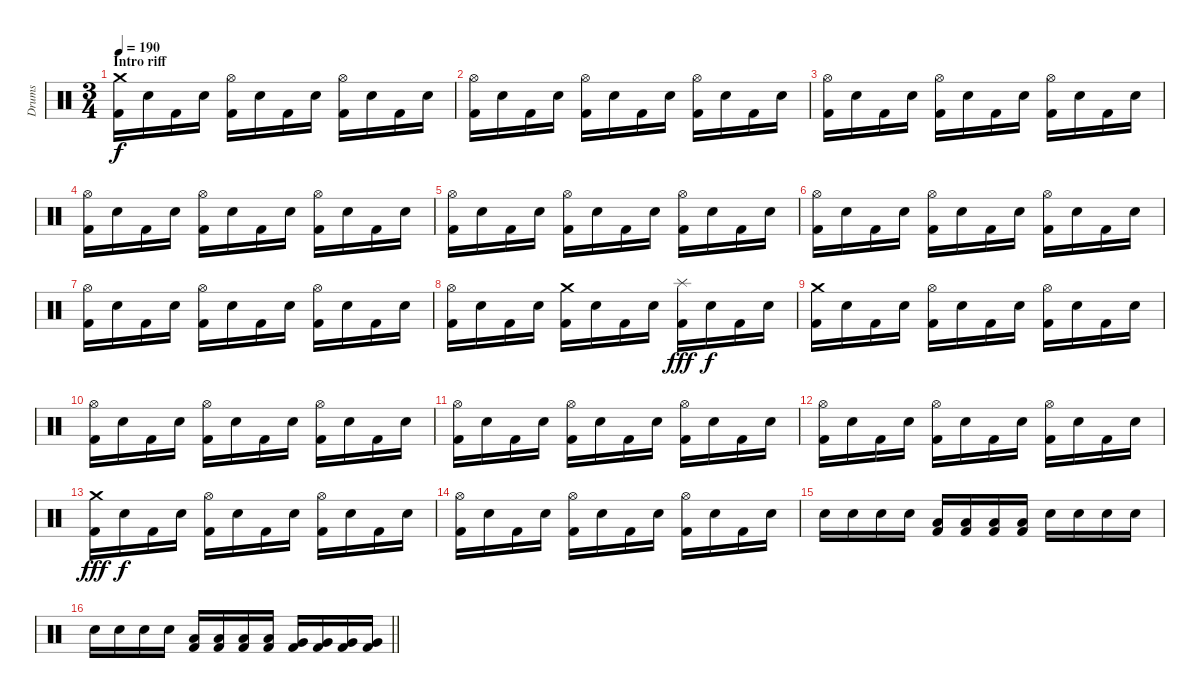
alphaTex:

\track ("Drums" "Drums") {instrument percussion}
\staff {score}
\articulation defaults
\ts (3 4)
\section ("" "Intro riff")
\tempo 190
\clef neutral
\ks c
("Crash medium (hit)" "Kick (hit) 2").16{dy f} "Electric Snare (hit)".16 "Kick (hit) 2".16 "Electric Snare (hit)".16 ("Hi-Hat (open)" "Kick (hit) 2").16 "Electric Snare (hit)".16 "Kick (hit) 2".16 "Electric Snare (hit)".16 ("Hi-Hat (open)" "Kick (hit) 2").16 "Electric Snare (hit)".16 "Kick (hit) 2".16 "Electric Snare (hit)".16 |
("Hi-Hat (open)" "Kick (hit) 2").16 "Electric Snare (hit)".16 "Kick (hit) 2".16 "Electric Snare (hit)".16 ("Hi-Hat (open)" "Kick (hit) 2").16 "Electric Snare (hit)".16 "Kick (hit) 2".16 "Electric Snare (hit)".16 ("Hi-Hat (open)" "Kick (hit) 2").16 "Electric Snare (hit)".16 "Kick (hit) 2".16 "Electric Snare (hit)".16 |
("Hi-Hat (open)" "Kick (hit) 2").16 "Electric Snare (hit)".16 "Kick (hit) 2".16 "Electric Snare (hit)".16 ("Hi-Hat (open)" "Kick (hit) 2").16 "Electric Snare (hit)".16 "Kick (hit) 2".16 "Electric Snare (hit)".16 ("Hi-Hat (open)" "Kick (hit) 2").16 "Electric Snare (hit)".16 "Kick (hit) 2".16 "Electric Snare (hit)".16 |
("Hi-Hat (open)" "Kick (hit) 2").16 "Electric Snare (hit)".16 "Kick (hit) 2".16 "Electric Snare (hit)".16 ("Hi-Hat (open)" "Kick (hit) 2").16 "Electric Snare (hit)".16 "Kick (hit) 2".16 "Electric Snare (hit)".16 ("Hi-Hat (open)" "Kick (hit) 2").16 "Electric Snare (hit)".16 "Kick (hit) 2".16 "Electric Snare (hit)".16 |
("Hi-Hat (open)" "Kick (hit) 2").16 "Electric Snare (hit)".16 "Kick (hit) 2".16 "Electric Snare (hit)".16 ("Hi-Hat (open)" "Kick (hit) 2").16 "Electric Snare (hit)".16 "Kick (hit) 2".16 "Electric Snare (hit)".16 ("Hi-Hat (open)" "Kick (hit) 2").16 "Electric Snare (hit)".16 "Kick (hit) 2".16 "Electric Snare (hit)".16 |
("Hi-Hat (open)" "Kick (hit) 2").16 "Electric Snare (hit)".16 "Kick (hit) 2".16 "Electric Snare (hit)".16 ("Hi-Hat (open)" "Kick (hit) 2").16 "Electric Snare (hit)".16 "Kick (hit) 2".16 "Electric Snare (hit)".16 ("Hi-Hat (open)" "Kick (hit) 2").16 "Electric Snare (hit)".16 "Kick (hit) 2".16 "Electric Snare (hit)".16 |
("Hi-Hat (open)" "Kick (hit) 2").16 "Electric Snare (hit)".16 "Kick (hit) 2".16 "Electric Snare (hit)".16 ("Hi-Hat (open)" "Kick (hit) 2").16 "Electric Snare (hit)".16 "Kick (hit) 2".16 "Electric Snare (hit)".16 ("Hi-Hat (open)" "Kick (hit) 2").16 "Electric Snare (hit)".16 "Kick (hit) 2".16 "Electric Snare (hit)".16 |
("Hi-Hat (open)" "Kick (hit) 2").16 "Electric Snare (hit)".16 "Kick (hit) 2".16 "Electric Snare (hit)".16 ("Crash medium (hit)" "Kick (hit) 2").16 "Electric Snare (hit)".16 "Kick (hit) 2".16 "Electric Snare (hit)".16 ("Splash (hit)" "Kick (hit) 2").16{dy fff} "Electric Snare (hit)".16{dy f} "Kick (hit) 2".16 "Electric Snare (hit)".16 |
("Crash medium (hit)" "Kick (hit) 2").16 "Electric Snare (hit)".16 "Kick (hit) 2".16 "Electric Snare (hit)".16 ("Hi-Hat (open)" "Kick (hit) 2").16 "Electric Snare (hit)".16 "Kick (hit) 2".16 "Electric Snare (hit)".16 ("Hi-Hat (open)" "Kick (hit) 2").16 "Electric Snare (hit)".16 "Kick (hit) 2".16 "Electric Snare (hit)".16 |
("Hi-Hat (open)" "Kick (hit) 2").16 "Electric Snare (hit)".16 "Kick (hit) 2".16 "Electric Snare (hit)".16 ("Hi-Hat (open)" "Kick (hit) 2").16 "Electric Snare (hit)".16 "Kick (hit) 2".16 "Electric Snare (hit)".16 ("Hi-Hat (open)" "Kick (hit) 2").16 "Electric Snare (hit)".16 "Kick (hit) 2".16 "Electric Snare (hit)".16 |
("Hi-Hat (open)" "Kick (hit) 2").16 "Electric Snare (hit)".16 "Kick (hit) 2".16 "Electric Snare (hit)".16 ("Hi-Hat (open)" "Kick (hit) 2").16 "Electric Snare (hit)".16 "Kick (hit) 2".16 "Electric Snare (hit)".16 ("Hi-Hat (open)" "Kick (hit) 2").16 "Electric Snare (hit)".16 "Kick (hit) 2".16 "Electric Snare (hit)".16 |
("Hi-Hat (open)" "Kick (hit) 2").16 "Electric Snare (hit)".16 "Kick (hit) 2".16 "Electric Snare (hit)".16 ("Hi-Hat (open)" "Kick (hit) 2").16 "Electric Snare (hit)".16 "Kick (hit) 2".16 "Electric Snare (hit)".16 ("Hi-Hat (open)" "Kick (hit) 2").16 "Electric Snare (hit)".16 "Kick (hit) 2".16 "Electric Snare (hit)".16 |
("Crash medium (hit)" "Kick (hit) 2").16{dy fff} "Electric Snare (hit)".16{dy f} "Kick (hit) 2".16 "Electric Snare (hit)".16 ("Hi-Hat (open)" "Kick (hit) 2").16 "Electric Snare (hit)".16 "Kick (hit) 2".16 "Electric Snare (hit)".16 ("Hi-Hat (open)" "Kick (hit) 2").16 "Electric Snare (hit)".16 "Kick (hit) 2".16 "Electric Snare (hit)".16 |
("Hi-Hat (open)" "Kick (hit) 2").16 "Electric Snare (hit)".16 "Kick (hit) 2".16 "Electric Snare (hit)".16 ("Hi-Hat (open)" "Kick (hit) 2").16 "Electric Snare (hit)".16 "Kick (hit) 2".16 "Electric Snare (hit)".16 ("Hi-Hat (open)" "Kick (hit) 2").16 "Electric Snare (hit)".16 "Kick (hit) 2".16 "Electric Snare (hit)".16 |
"Electric Snare (hit)".16 "Electric Snare (hit)".16 "Electric Snare (hit)".16 "Electric Snare (hit)".16 ("Low Tom (hit)" "Kick (hit) 2").16 ("Low Tom (hit)" "Kick (hit) 2").16 ("Low Tom (hit)" "Kick (hit) 2").16 ("Low Tom (hit)" "Kick (hit) 2").16 "Electric Snare (hit)".16 "Electric Snare (hit)".16 "Electric Snare (hit)".16 "Electric Snare (hit)".16 |
\barLineRight lightlight "Electric Snare (hit)".16 "Electric Snare (hit)".16 "Electric Snare (hit)".16 "Electric Snare (hit)".16
("Low Tom (hit)" "Kick (hit) 2").16 ("Low Tom (hit)" "Kick (hit) 2").16 ("Low Tom (hit)" "Kick (hit) 2").16 ("Low Tom (hit)" "Kick (hit) 2").16 ("Very Low Tom (hit)" "Kick (hit) 2").16 ("Very Low Tom (hit)" "Kick (hit) 2").16 ("Very Low Tom (hit)" "Kick (hit) 2").16 ("Very Low Tom (hit)" "Kick (hit) 2").16
